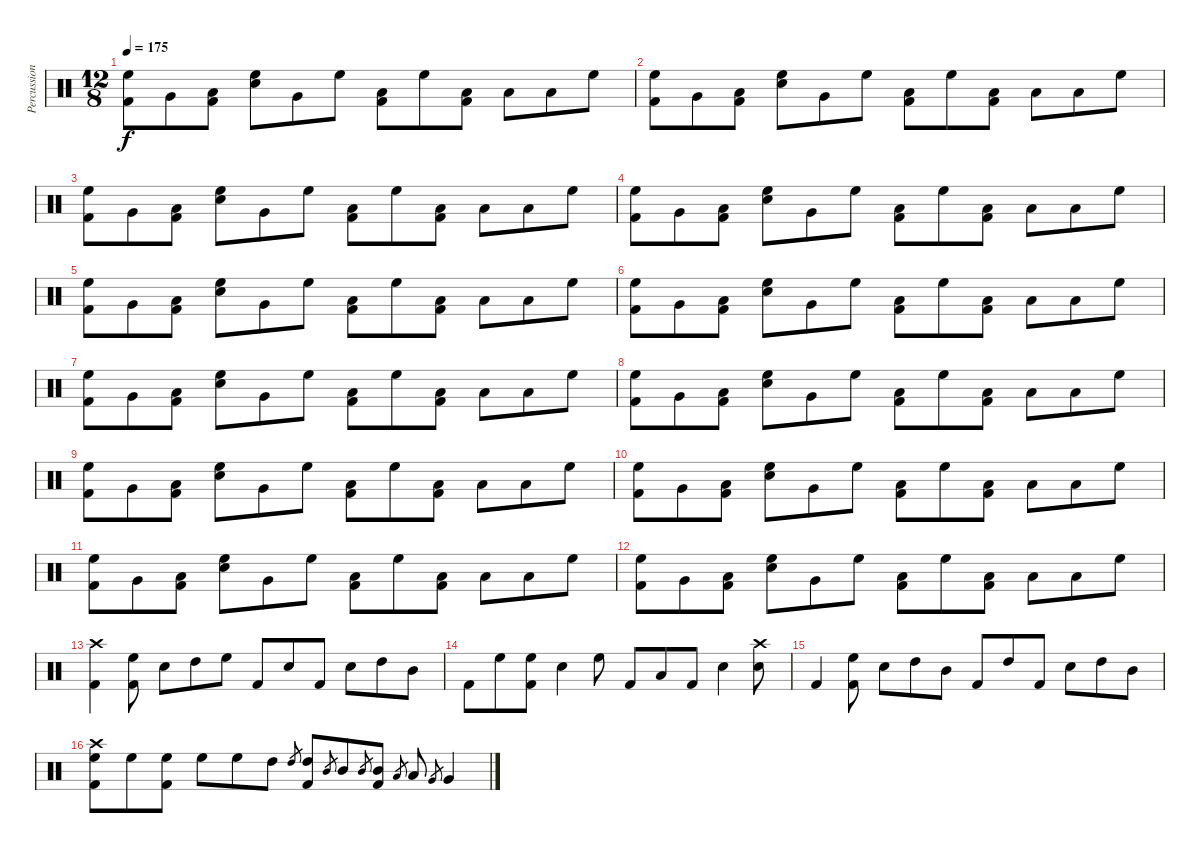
\track ("Percussion" "Percussion") {instrument percussion}
\staff {score}
\articulation defaults
\ts (12 8)
\tempo 175
\clef neutral
\ks c
("Kick (hit) 2" "High Floor Tom (hit)").8{dy f} "Very Low Tom (hit)".8 ("Kick (hit) 2" "Low Floor Tom (hit)").8 ("Snare (hit) 2" "High Floor Tom (hit)").8 "Very Low Tom (hit)".8 "High Floor Tom (hit)".8 ("Kick (hit) 2" "Low Tom (hit)").8 "High Floor Tom (hit)".8 ("Kick (hit) 2" "Low Tom (hit)").8 "Low Tom (hit)".8 "Low Floor Tom (hit)".8 "High Floor Tom (hit)".8 |
("Kick (hit) 2" "High Floor Tom (hit)").8 "Very Low Tom (hit)".8 ("Kick (hit) 2" "Low Floor Tom (hit)").8 ("Snare (hit) 2" "High Floor Tom (hit)").8 "Very Low Tom (hit)".8 "High Floor Tom (hit)".8 ("Kick (hit) 2" "Low Tom (hit)").8 "High Floor Tom (hit)".8 ("Kick (hit) 2" "Low Tom (hit)").8 "Low Tom (hit)".8 "Low Floor Tom (hit)".8 "High Floor Tom (hit)".8 |
("Kick (hit) 2" "High Floor Tom (hit)").8 "Very Low Tom (hit)".8 ("Kick (hit) 2" "Low Floor Tom (hit)").8 ("Snare (hit) 2" "High Floor Tom (hit)").8 "Very Low Tom (hit)".8 "High Floor Tom (hit)".8 ("Kick (hit) 2" "Low Tom (hit)").8 "High Floor Tom (hit)".8 ("Kick (hit) 2" "Low Tom (hit)").8 "Low Tom (hit)".8 "Low Floor Tom (hit)".8 "High Floor Tom (hit)".8 |
("Kick (hit) 2" "High Floor Tom (hit)").8 "Very Low Tom (hit)".8 ("Kick (hit) 2" "Low Floor Tom (hit)").8 ("Snare (hit) 2" "High Floor Tom (hit)").8 "Very Low Tom (hit)".8 "High Floor Tom (hit)".8 ("Kick (hit) 2" "Low Tom (hit)").8 "High Floor Tom (hit)".8 ("Kick (hit) 2" "Low Tom (hit)").8 "Low Tom (hit)".8 "Low Floor Tom (hit)".8 "High Floor Tom (hit)".8 |
("Kick (hit) 2" "High Floor Tom (hit)").8 "Very Low Tom (hit)".8 ("Kick (hit) 2" "Low Floor Tom (hit)").8 ("Snare (hit) 2" "High Floor Tom (hit)").8 "Very Low Tom (hit)".8 "High Floor Tom (hit)".8 ("Kick (hit) 2" "Low Tom (hit)").8 "High Floor Tom (hit)".8 ("Kick (hit) 2" "Low Tom (hit)").8 "Low Tom (hit)".8 "Low Floor Tom (hit)".8 "High Floor Tom (hit)".8 |
("Kick (hit) 2" "High Floor Tom (hit)").8 "Very Low Tom (hit)".8 ("Kick (hit) 2" "Low Floor Tom (hit)").8 ("Snare (hit) 2" "High Floor Tom (hit)").8 "Very Low Tom (hit)".8 "High Floor Tom (hit)".8 ("Kick (hit) 2" "Low Tom (hit)").8 "High Floor Tom (hit)".8 ("Kick (hit) 2" "Low Tom (hit)").8 "Low Tom (hit)".8 "Low Floor Tom (hit)".8 "High Floor Tom (hit)".8 |
("Kick (hit) 2" "High Floor Tom (hit)").8 "Very Low Tom (hit)".8 ("Kick (hit) 2" "Low Floor Tom (hit)").8 ("Snare (hit) 2" "High Floor Tom (hit)").8 "Very Low Tom (hit)".8 "High Floor Tom (hit)".8 ("Kick (hit) 2" "Low Tom (hit)").8 "High Floor Tom (hit)".8 ("Kick (hit) 2" "Low Tom (hit)").8 "Low Tom (hit)".8 "Low Floor Tom (hit)".8 "High Floor Tom (hit)".8 |
("Kick (hit) 2" "High Floor Tom (hit)").8 "Very Low Tom (hit)".8 ("Kick (hit) 2" "Low Floor Tom (hit)").8 ("Snare (hit) 2" "High Floor Tom (hit)").8 "Very Low Tom (hit)".8 "High Floor Tom (hit)".8 ("Kick (hit) 2" "Low Tom (hit)").8 "High Floor Tom (hit)".8 ("Kick (hit) 2" "Low Tom (hit)").8 "Low Tom (hit)".8 "Low Floor Tom (hit)".8 "High Floor Tom (hit)".8 |
("Kick (hit) 2" "High Floor Tom (hit)").8 "Very Low Tom (hit)".8 ("Kick (hit) 2" "Low Floor Tom (hit)").8 ("Snare (hit) 2" "High Floor Tom (hit)").8 "Very Low Tom (hit)".8 "High Floor Tom (hit)".8 ("Kick (hit) 2" "Low Tom (hit)").8 "High Floor Tom (hit)".8 ("Kick (hit) 2" "Low Tom (hit)").8 "Low Tom (hit)".8 "Low Floor Tom (hit)".8 "High Floor Tom (hit)".8 |
("Kick (hit) 2" "High Floor Tom (hit)").8 "Very Low Tom (hit)".8 ("Kick (hit) 2" "Low Floor Tom (hit)").8 ("Snare (hit) 2" "High Floor Tom (hit)").8 "Very Low Tom (hit)".8 "High Floor Tom (hit)".8 ("Kick (hit) 2" "Low Tom (hit)").8 "High Floor Tom (hit)".8 ("Kick (hit) 2" "Low Tom (hit)").8 "Low Tom (hit)".8 "Low Floor Tom (hit)".8 "High Floor Tom (hit)".8 |
("Kick (hit) 2" "High Floor Tom (hit)").8 "Very Low Tom (hit)".8 ("Kick (hit) 2" "Low Floor Tom (hit)").8 ("Snare (hit) 2" "High Floor Tom (hit)").8 "Very Low Tom (hit)".8 "High Floor Tom (hit)".8 ("Kick (hit) 2" "Low Tom (hit)").8 "High Floor Tom (hit)".8 ("Kick (hit) 2" "Low Tom (hit)").8 "Low Tom (hit)".8 "Low Floor Tom (hit)".8 "High Floor Tom (hit)".8 |
("Kick (hit) 2" "High Floor Tom (hit)").8 "Very Low Tom (hit)".8 ("Kick (hit) 2" "Low Floor Tom (hit)").8 ("Snare (hit) 2" "High Floor Tom (hit)").8 "Very Low Tom (hit)".8 "High Floor Tom (hit)".8 ("Kick (hit) 2" "Low Tom (hit)").8 "High Floor Tom (hit)".8 ("Kick (hit) 2" "Low Tom (hit)").8 "Low Tom (hit)".8 "Low Floor Tom (hit)".8 "High Floor Tom (hit)".8 |
("Kick (hit) 2" "Crash high (hit)").4 ("Kick (hit) 2" "High Floor Tom (hit)").8 "Snare (hit) 2".8 "High Tom (hit)".8 "High Floor Tom (hit)".8 "Kick (hit) 2".8 "Snare (hit) 2".8 "Kick (hit) 2".8 "Snare (hit) 2".8 "High Tom (hit)".8 "Mid Tom (hit)".8 |
"Kick (hit) 2".8 "High Floor Tom (hit)".8 ("Kick (hit) 2" "High Floor Tom (hit)").8 "Snare (hit) 2".4 "High Floor Tom (hit)".8 "Kick (hit) 2".8 "Low Tom (hit)".8 "Kick (hit) 2".8 "Snare (hit) 2".4 ("Snare (hit) 2" "Crash high (hit)").8 |
"Kick (hit) 2".4 ("Kick (hit) 2" "High Floor Tom (hit)").8 "Snare (hit) 2".8 "High Tom (hit)".8 "Mid Tom (hit)".8 "Kick (hit) 2".8 "High Tom (hit)".8 "Kick (hit) 2".8 "Snare (hit) 2".8 "High Tom (hit)".8 "Mid Tom (hit)".8 |
("Kick (hit) 2" "High Floor Tom (hit)" "Crash high (hit)").8 "High Floor Tom (hit)".8 ("Kick (hit) 2" "High Floor Tom (hit)").8 "High Floor Tom (hit)".8 "High Floor Tom (hit)".8 "High Tom (hit)".8 "High Tom (hit)".8{gr} ("Kick (hit) 2" "High Tom (hit)").8 "Mid Tom (hit)".8{gr} "Mid Tom (hit)".8 "Mid Tom (hit)".8{gr} ("Kick (hit) 2" "Mid Tom (hit)").8 "Low Tom (hit)".8{gr} "Low Tom (hit)".8 "Very Low Tom (hit)".8{gr} "Very Low Tom (hit)".4
